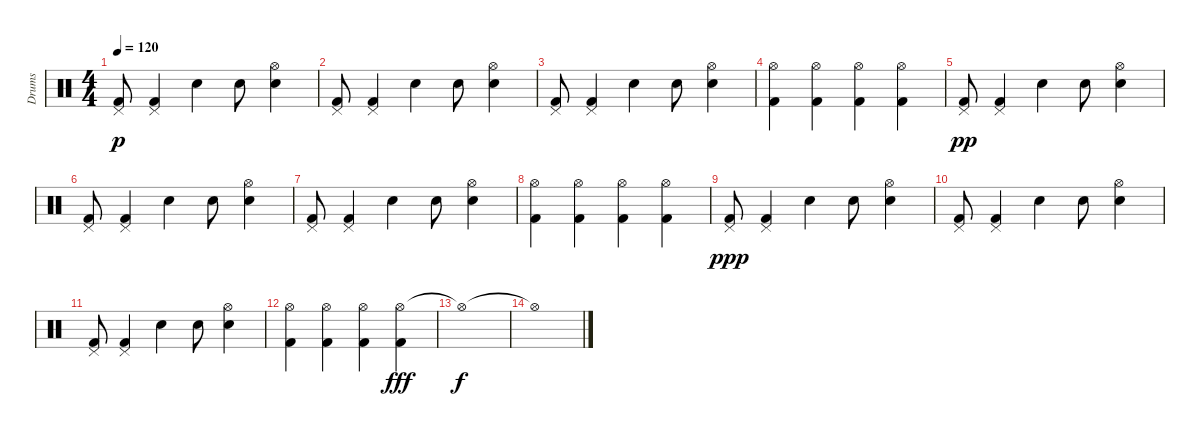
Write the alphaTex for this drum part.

\track ("Drums" "Drums") {instrument percussion}
\staff {score}
\articulation defaults
\ts (4 4)
\tempo 120
\clef neutral
\ks c
("Pedal Hi-Hat (hit)" "Kick (hit) 2").8{dy p} ("Pedal Hi-Hat (hit)" "Kick (hit) 2").4 "Electric Snare (hit)".4 "Electric Snare (hit)".8 ("Hi-Hat (open)" "Snare (hit) 2").4 |
("Pedal Hi-Hat (hit)" "Kick (hit) 2").8 ("Pedal Hi-Hat (hit)" "Kick (hit) 2").4 "Electric Snare (hit)".4 "Electric Snare (hit)".8 ("Hi-Hat (open)" "Snare (hit) 2").4 |
("Pedal Hi-Hat (hit)" "Kick (hit) 2").8 ("Pedal Hi-Hat (hit)" "Kick (hit) 2").4 "Electric Snare (hit)".4 "Electric Snare (hit)".8 ("Hi-Hat (open)" "Snare (hit) 2").4 |
("Hi-Hat (open)" "Kick (hit) 2").4 ("Hi-Hat (open)" "Kick (hit) 2").4 ("Hi-Hat (open)" "Kick (hit) 2").4 ("Hi-Hat (open)" "Kick (hit) 2").4 |
("Pedal Hi-Hat (hit)" "Kick (hit) 2").8{dy pp} ("Pedal Hi-Hat (hit)" "Kick (hit) 2").4 "Electric Snare (hit)".4 "Electric Snare (hit)".8 ("Hi-Hat (open)" "Snare (hit) 2").4 |
("Pedal Hi-Hat (hit)" "Kick (hit) 2").8 ("Pedal Hi-Hat (hit)" "Kick (hit) 2").4 "Electric Snare (hit)".4 "Electric Snare (hit)".8 ("Hi-Hat (open)" "Snare (hit) 2").4 |
("Pedal Hi-Hat (hit)" "Kick (hit) 2").8 ("Pedal Hi-Hat (hit)" "Kick (hit) 2").4 "Electric Snare (hit)".4 "Electric Snare (hit)".8 ("Hi-Hat (open)" "Snare (hit) 2").4 |
("Hi-Hat (open)" "Kick (hit) 2").4 ("Hi-Hat (open)" "Kick (hit) 2").4 ("Hi-Hat (open)" "Kick (hit) 2").4 ("Hi-Hat (open)" "Kick (hit) 2").4 |
("Pedal Hi-Hat (hit)" "Kick (hit) 2").8{dy ppp} ("Pedal Hi-Hat (hit)" "Kick (hit) 2").4 "Electric Snare (hit)".4 "Electric Snare (hit)".8 ("Hi-Hat (open)" "Snare (hit) 2").4 |
("Pedal Hi-Hat (hit)" "Kick (hit) 2").8 ("Pedal Hi-Hat (hit)" "Kick (hit) 2").4 "Electric Snare (hit)".4 "Electric Snare (hit)".8 ("Hi-Hat (open)" "Snare (hit) 2").4 |
("Pedal Hi-Hat (hit)" "Kick (hit) 2").8 ("Pedal Hi-Hat (hit)" "Kick (hit) 2").4 "Electric Snare (hit)".4 "Electric Snare (hit)".8 ("Hi-Hat (open)" "Snare (hit) 2").4 |
("Hi-Hat (open)" "Kick (hit) 2").4 ("Hi-Hat (open)" "Kick (hit) 2").4 ("Hi-Hat (open)" "Kick (hit) 2").4 ("Hi-Hat (open)" "Kick (hit) 2").4{dy fff} |
"Hi-Hat (open)"{t}.1{dy f} |
"Hi-Hat (open)"{t}.1
